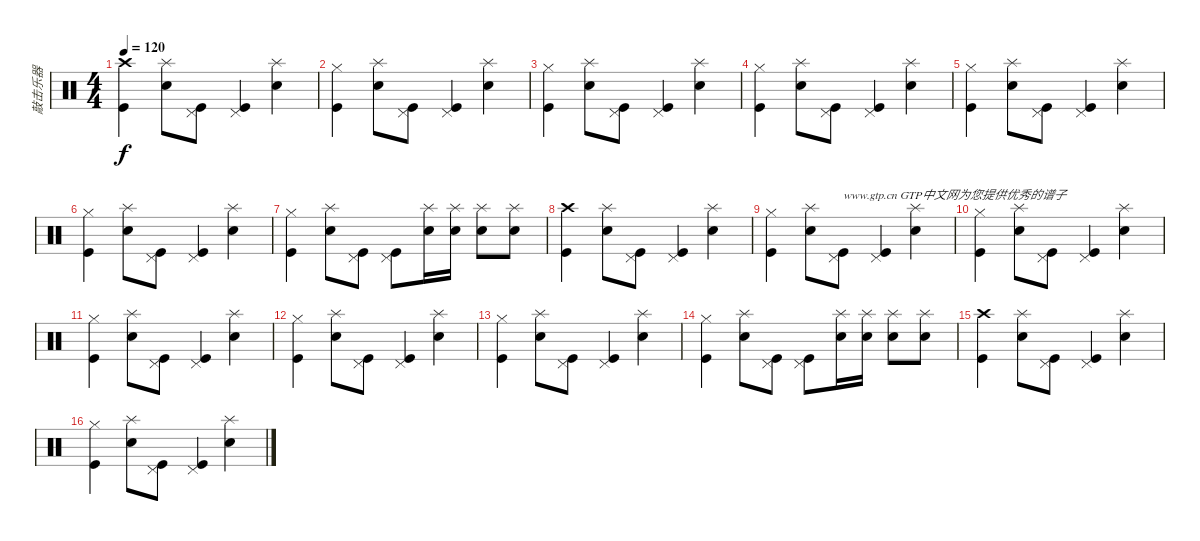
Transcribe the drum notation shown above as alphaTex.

\track ("敲击乐器" "敲击乐器") {instrument percussion}
\staff {score}
\articulation defaults
\ts (4 4)
\tempo 120
\clef neutral
\ks c
("Crash high (hit)" "Kick (hit)").4{dy f} ("Splash (hit)" "Snare (hit) 2").8 ("Pedal Hi-Hat (hit)" "Kick (hit)").8 ("Pedal Hi-Hat (hit)" "Kick (hit)").4 ("Splash (hit)" "Snare (hit) 2").4 |
("Hi-Hat (closed)" "Kick (hit)").4 ("Splash (hit)" "Snare (hit) 2").8 ("Pedal Hi-Hat (hit)" "Kick (hit)").8 ("Pedal Hi-Hat (hit)" "Kick (hit)").4 ("Splash (hit)" "Snare (hit) 2").4 |
("Hi-Hat (closed)" "Kick (hit)").4 ("Splash (hit)" "Snare (hit) 2").8 ("Pedal Hi-Hat (hit)" "Kick (hit)").8 ("Pedal Hi-Hat (hit)" "Kick (hit)").4 ("Splash (hit)" "Snare (hit) 2").4 |
("Hi-Hat (closed)" "Kick (hit)").4 ("Splash (hit)" "Snare (hit) 2").8 ("Pedal Hi-Hat (hit)" "Kick (hit)").8 ("Pedal Hi-Hat (hit)" "Kick (hit)").4 ("Splash (hit)" "Snare (hit) 2").4 |
("Hi-Hat (closed)" "Kick (hit)").4 ("Splash (hit)" "Snare (hit) 2").8 ("Pedal Hi-Hat (hit)" "Kick (hit)").8 ("Pedal Hi-Hat (hit)" "Kick (hit)").4 ("Splash (hit)" "Snare (hit) 2").4 |
("Hi-Hat (closed)" "Kick (hit)").4 ("Splash (hit)" "Snare (hit) 2").8 ("Pedal Hi-Hat (hit)" "Kick (hit)").8 ("Pedal Hi-Hat (hit)" "Kick (hit)").4 ("Splash (hit)" "Snare (hit) 2").4 |
("Hi-Hat (closed)" "Kick (hit)").4 ("Splash (hit)" "Snare (hit) 2").8 ("Pedal Hi-Hat (hit)" "Kick (hit)").8 ("Pedal Hi-Hat (hit)" "Kick (hit)").8 ("Splash (hit)" "Snare (hit) 2").16 ("Splash (hit)" "Snare (hit) 2").16 ("Splash (hit)" "Snare (hit) 2").8 ("Splash (hit)" "Snare (hit) 2").8 |
("Crash high (hit)" "Kick (hit)").4 ("Splash (hit)" "Snare (hit) 2").8 ("Pedal Hi-Hat (hit)" "Kick (hit)").8 ("Pedal Hi-Hat (hit)" "Kick (hit)").4 ("Splash (hit)" "Snare (hit) 2").4 |
("Hi-Hat (closed)" "Kick (hit)").4 ("Splash (hit)" "Snare (hit) 2").8 ("Pedal Hi-Hat (hit)" "Kick (hit)").8{txt "www.gtp.cn GTP中文网为您提供优秀的谱子"} ("Pedal Hi-Hat (hit)" "Kick (hit)").4 ("Splash (hit)" "Snare (hit) 2").4 |
("Hi-Hat (closed)" "Kick (hit)").4 ("Splash (hit)" "Snare (hit) 2").8 ("Pedal Hi-Hat (hit)" "Kick (hit)").8 ("Pedal Hi-Hat (hit)" "Kick (hit)").4 ("Splash (hit)" "Snare (hit) 2").4 |
("Hi-Hat (closed)" "Kick (hit)").4 ("Splash (hit)" "Snare (hit) 2").8 ("Pedal Hi-Hat (hit)" "Kick (hit)").8 ("Pedal Hi-Hat (hit)" "Kick (hit)").4 ("Splash (hit)" "Snare (hit) 2").4 |
("Hi-Hat (closed)" "Kick (hit)").4 ("Splash (hit)" "Snare (hit) 2").8 ("Pedal Hi-Hat (hit)" "Kick (hit)").8 ("Pedal Hi-Hat (hit)" "Kick (hit)").4 ("Splash (hit)" "Snare (hit) 2").4 |
("Hi-Hat (closed)" "Kick (hit)").4 ("Splash (hit)" "Snare (hit) 2").8 ("Pedal Hi-Hat (hit)" "Kick (hit)").8 ("Pedal Hi-Hat (hit)" "Kick (hit)").4 ("Splash (hit)" "Snare (hit) 2").4 |
("Hi-Hat (closed)" "Kick (hit)").4 ("Splash (hit)" "Snare (hit) 2").8 ("Pedal Hi-Hat (hit)" "Kick (hit)").8 ("Pedal Hi-Hat (hit)" "Kick (hit)").8 ("Splash (hit)" "Snare (hit) 2").16 ("Splash (hit)" "Snare (hit) 2").16 ("Splash (hit)" "Snare (hit) 2").8 ("Splash (hit)" "Snare (hit) 2").8 |
("Crash high (hit)" "Kick (hit)").4 ("Splash (hit)" "Snare (hit) 2").8 ("Pedal Hi-Hat (hit)" "Kick (hit)").8 ("Pedal Hi-Hat (hit)" "Kick (hit)").4 ("Splash (hit)" "Snare (hit) 2").4 |
("Hi-Hat (closed)" "Kick (hit)").4 ("Splash (hit)" "Snare (hit) 2").8 ("Pedal Hi-Hat (hit)" "Kick (hit)").8 ("Pedal Hi-Hat (hit)" "Kick (hit)").4 ("Splash (hit)" "Snare (hit) 2").4
